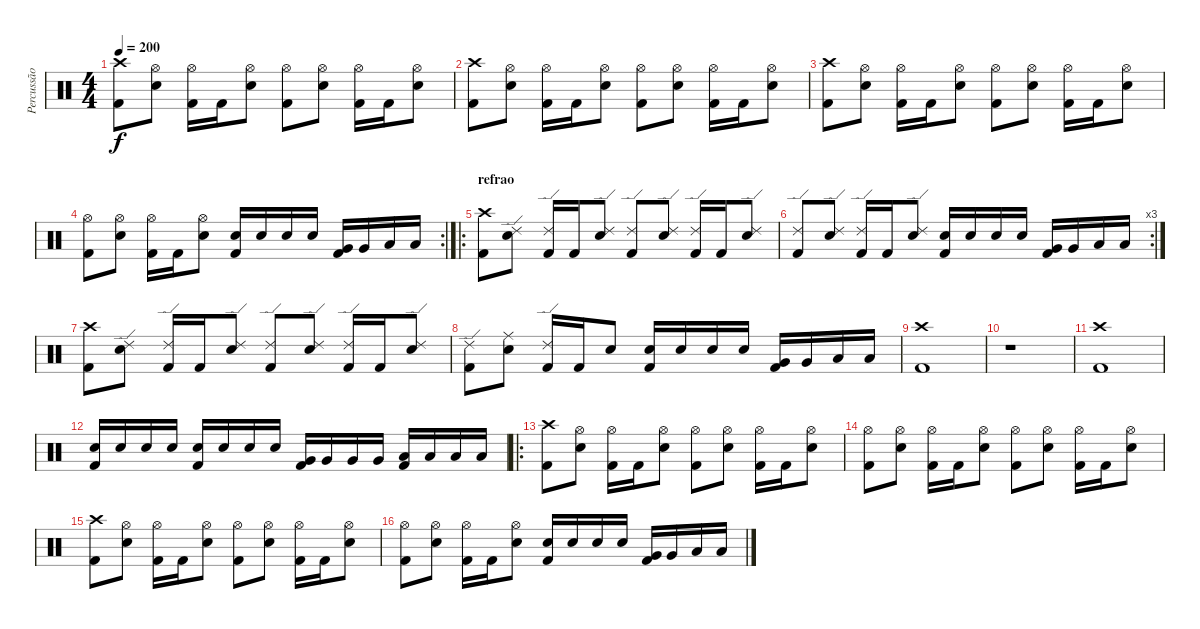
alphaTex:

\track ("Percussão" "Percussão") {instrument percussion}
\staff {score}
\articulation defaults
\ts (4 4)
\tempo 200
\clef neutral
\ks c
("Crash high (hit)" "Kick (hit) 2").8{dy f} ("Hi-Hat (open)" "Snare (hit) 2").8 ("Hi-Hat (open)" "Kick (hit) 2").16 "Kick (hit) 2".16 ("Hi-Hat (open)" "Snare (hit) 2").8 ("Hi-Hat (open)" "Kick (hit) 2").8 ("Hi-Hat (open)" "Snare (hit) 2").8 ("Hi-Hat (open)" "Kick (hit) 2").16 "Kick (hit) 2".16 ("Hi-Hat (open)" "Snare (hit) 2").8 |
("Crash high (hit)" "Kick (hit) 2").8 ("Hi-Hat (open)" "Snare (hit) 2").8 ("Hi-Hat (open)" "Kick (hit) 2").16 "Kick (hit) 2".16 ("Hi-Hat (open)" "Snare (hit) 2").8 ("Hi-Hat (open)" "Kick (hit) 2").8 ("Hi-Hat (open)" "Snare (hit) 2").8 ("Hi-Hat (open)" "Kick (hit) 2").16 "Kick (hit) 2".16 ("Hi-Hat (open)" "Snare (hit) 2").8 |
("Crash high (hit)" "Kick (hit) 2").8 ("Hi-Hat (open)" "Snare (hit) 2").8 ("Hi-Hat (open)" "Kick (hit) 2").16 "Kick (hit) 2".16 ("Hi-Hat (open)" "Snare (hit) 2").8 ("Hi-Hat (open)" "Kick (hit) 2").8 ("Hi-Hat (open)" "Snare (hit) 2").8 ("Hi-Hat (open)" "Kick (hit) 2").16 "Kick (hit) 2".16 ("Hi-Hat (open)" "Snare (hit) 2").8 |
\rc 2
("Hi-Hat (open)" "Kick (hit) 2").8 ("Hi-Hat (open)" "Snare (hit) 2").8 ("Hi-Hat (open)" "Kick (hit) 2").16 "Kick (hit) 2".16 ("Hi-Hat (open)" "Snare (hit) 2").8 ("Snare (hit) 2" "Kick (hit) 2").16 "Snare (hit) 2".16 "Snare (hit) 2".16 "Snare (hit) 2".16 ("Very Low Tom (hit)" "Kick (hit) 2").16 "Very Low Tom (hit)".16 "Low Floor Tom (hit)".16 "Low Floor Tom (hit)".16 |
\ro
\section ("" "refrao")
("Crash high (hit)" "Kick (hit) 2").8 ("Ride (edge) 2" "Snare (hit) 2").8 ("Ride (edge) 2" "Kick (hit) 2").16 "Kick (hit) 2".16 ("Ride (edge) 2" "Snare (hit) 2").8 ("Ride (edge) 2" "Kick (hit) 2").8 ("Ride (edge) 2" "Snare (hit) 2").8 ("Ride (edge) 2" "Kick (hit) 2").16 "Kick (hit) 2".16 ("Ride (edge) 2" "Snare (hit) 2").8 |
\rc 3
("Ride (edge) 2" "Kick (hit) 2").8 ("Ride (edge) 2" "Snare (hit) 2").8 ("Ride (edge) 2" "Kick (hit) 2").16 "Kick (hit) 2".16 ("Ride (edge) 2" "Snare (hit) 2").8 ("Snare (hit) 2" "Kick (hit) 2").16 "Snare (hit) 2".16 "Snare (hit) 2".16 "Snare (hit) 2".16 ("Very Low Tom (hit)" "Kick (hit) 2").16 "Very Low Tom (hit)".16 "Low Floor Tom (hit)".16 "Low Floor Tom (hit)".16 |
("Crash high (hit)" "Kick (hit) 2").8 ("Ride (edge) 2" "Snare (hit) 2").8 ("Ride (edge) 2" "Kick (hit) 2").16 "Kick (hit) 2".16 ("Ride (edge) 2" "Snare (hit) 2").8 ("Ride (edge) 2" "Kick (hit) 2").8 ("Ride (edge) 2" "Snare (hit) 2").8 ("Ride (edge) 2" "Kick (hit) 2").16 "Kick (hit) 2".16 ("Ride (edge) 2" "Snare (hit) 2").8 |
("Ride (edge) 2" "Kick (hit) 2").8 ("Ride (middle)" "Snare (hit) 2").8 ("Ride (edge) 2" "Kick (hit) 2").16 "Kick (hit) 2".16 "Snare (hit) 2".8 ("Snare (hit) 2" "Kick (hit) 2").16 "Snare (hit) 2".16 "Snare (hit) 2".16 "Snare (hit) 2".16 ("Very Low Tom (hit)" "Kick (hit) 2").16 "Very Low Tom (hit)".16 "Low Floor Tom (hit)".16 "Low Floor Tom (hit)".16 |
("Crash high (hit)" "Kick (hit) 2").1 |
r.1 |
("Crash high (hit)" "Kick (hit) 2").1 |
("Snare (hit) 2" "Kick (hit) 2").16 "Snare (hit) 2".16 "Snare (hit) 2".16 "Snare (hit) 2".16 ("Snare (hit) 2" "Kick (hit) 2").16 "Snare (hit) 2".16 "Snare (hit) 2".16 "Snare (hit) 2".16 ("Very Low Tom (hit)" "Kick (hit) 2").16 "Very Low Tom (hit)".16 "Very Low Tom (hit)".16 "Very Low Tom (hit)".16 ("Low Floor Tom (hit)" "Kick (hit) 2").16 "Low Floor Tom (hit)".16 "Low Floor Tom (hit)".16 "Low Floor Tom (hit)".16 |
\ro
("Crash high (hit)" "Kick (hit) 2").8 ("Hi-Hat (open)" "Snare (hit) 2").8 ("Hi-Hat (open)" "Kick (hit) 2").16 "Kick (hit) 2".16 ("Hi-Hat (open)" "Snare (hit) 2").8 ("Hi-Hat (open)" "Kick (hit) 2").8 ("Hi-Hat (open)" "Snare (hit) 2").8 ("Hi-Hat (open)" "Kick (hit) 2").16 "Kick (hit) 2".16 ("Hi-Hat (open)" "Snare (hit) 2").8 |
("Hi-Hat (open)" "Kick (hit) 2").8 ("Hi-Hat (open)" "Snare (hit) 2").8 ("Hi-Hat (open)" "Kick (hit) 2").16 "Kick (hit) 2".16 ("Hi-Hat (open)" "Snare (hit) 2").8 ("Hi-Hat (open)" "Kick (hit) 2").8 ("Hi-Hat (open)" "Snare (hit) 2").8 ("Hi-Hat (open)" "Kick (hit) 2").16 "Kick (hit) 2".16 ("Hi-Hat (open)" "Snare (hit) 2").8 |
("Crash high (hit)" "Kick (hit) 2").8 ("Hi-Hat (open)" "Snare (hit) 2").8 ("Hi-Hat (open)" "Kick (hit) 2").16 "Kick (hit) 2".16 ("Hi-Hat (open)" "Snare (hit) 2").8 ("Hi-Hat (open)" "Kick (hit) 2").8 ("Hi-Hat (open)" "Snare (hit) 2").8 ("Hi-Hat (open)" "Kick (hit) 2").16 "Kick (hit) 2".16 ("Hi-Hat (open)" "Snare (hit) 2").8 |
("Hi-Hat (open)" "Kick (hit) 2").8 ("Hi-Hat (open)" "Snare (hit) 2").8 ("Hi-Hat (open)" "Kick (hit) 2").16 "Kick (hit) 2".16 ("Hi-Hat (open)" "Snare (hit) 2").8 ("Snare (hit) 2" "Kick (hit) 2").16 "Snare (hit) 2".16 "Snare (hit) 2".16 "Snare (hit) 2".16 ("Very Low Tom (hit)" "Kick (hit) 2").16 "Very Low Tom (hit)".16 "Low Floor Tom (hit)".16 "Low Floor Tom (hit)".16
